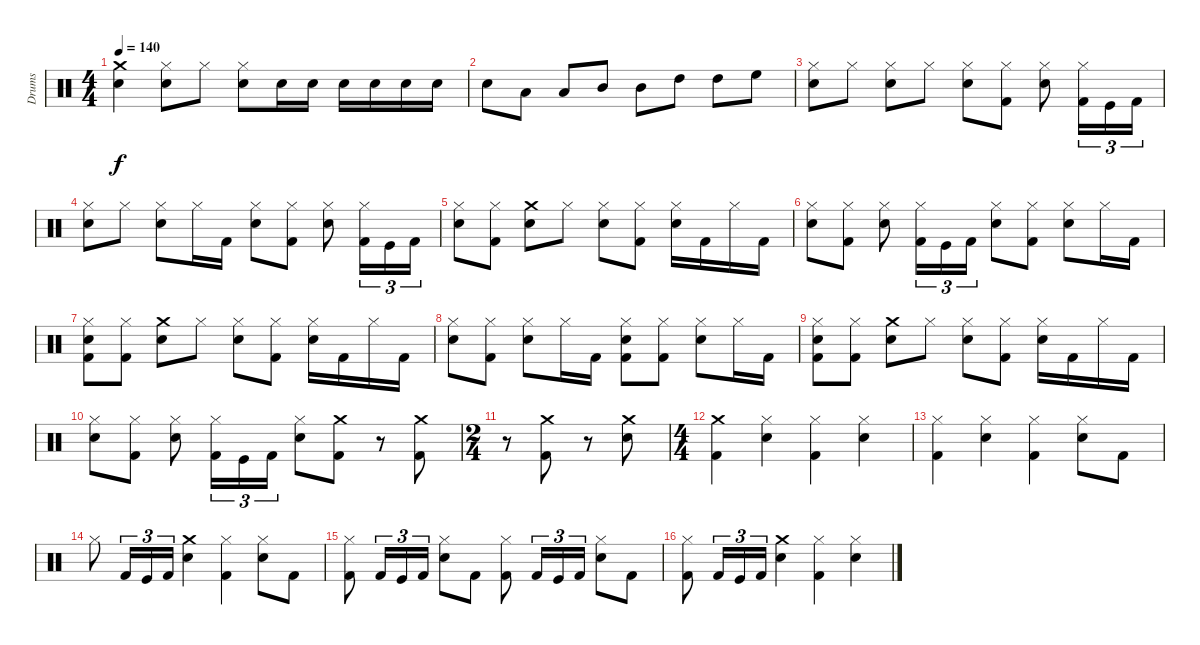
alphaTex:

\track ("Drums" "Drums") {instrument percussion}
\staff {score}
\articulation defaults
\ts (4 4)
\tempo 140
\clef neutral
\ks c
("Crash medium (hit)" "Snare (hit) 2").4{dy f} ("Hi-Hat (closed)" "Snare (hit) 2").8 "Hi-Hat (closed)".8 ("Snare (hit) 2" "Hi-Hat (closed)").8 "Snare (hit) 2".16 "Snare (hit) 2".16 "Snare (hit) 2".16 "Snare (hit) 2".16 "Snare (hit) 2".16 "Snare (hit) 2".16 |
"Snare (hit) 2".8 "Low Tom (hit)".8 "Low Tom (hit)".8 "Mid Tom (hit)".8 "Mid Tom (hit)".8 "High Tom (hit)".8 "High Tom (hit)".8 "High Floor Tom (hit)".8 |
("Hi-Hat (closed)" "Snare (hit) 2").8 "Hi-Hat (closed)".8 ("Snare (hit) 2" "Hi-Hat (closed)").8 "Hi-Hat (closed)".8 ("Snare (hit) 2" "Hi-Hat (closed)").8 ("Kick (hit) 2" "Hi-Hat (closed)").8 ("Snare (hit) 2" "Hi-Hat (closed)").8 ("Kick (hit) 2" "Hi-Hat (closed)").16{tu (3 2)} "Kick (hit)".16{tu (3 2)} "Kick (hit) 2".16{tu (3 2)} |
("Hi-Hat (closed)" "Snare (hit) 2").8 "Hi-Hat (closed)".8 ("Snare (hit) 2" "Hi-Hat (closed)").8 "Hi-Hat (closed)".16 "Kick (hit) 2".16 ("Snare (hit) 2" "Hi-Hat (closed)").8 ("Kick (hit) 2" "Hi-Hat (closed)").8 ("Snare (hit) 2" "Hi-Hat (closed)").8 ("Kick (hit) 2" "Hi-Hat (closed)").16{tu (3 2)} "Kick (hit)".16{tu (3 2)} "Kick (hit) 2".16{tu (3 2)} |
("Hi-Hat (closed)" "Snare (hit) 2").8 ("Kick (hit) 2" "Hi-Hat (closed)").8 ("Crash medium (hit)" "Snare (hit) 2").8 "Hi-Hat (closed)".8 ("Snare (hit) 2" "Hi-Hat (closed)").8 ("Kick (hit) 2" "Hi-Hat (closed)").8 ("Snare (hit) 2" "Hi-Hat (closed)").16 "Kick (hit) 2".16 "Hi-Hat (closed)".16 "Kick (hit) 2".16 |
("Snare (hit) 2" "Hi-Hat (closed)").8 ("Hi-Hat (closed)" "Kick (hit) 2").8 ("Snare (hit) 2" "Hi-Hat (closed)").8 ("Hi-Hat (closed)" "Kick (hit) 2").16{tu (3 2)} "Kick (hit)".16{tu (3 2)} "Kick (hit) 2".16{tu (3 2)} ("Snare (hit) 2" "Hi-Hat (closed)").8 ("Kick (hit) 2" "Hi-Hat (closed)").8 ("Hi-Hat (closed)" "Snare (hit) 2").8 "Hi-Hat (closed)".16 "Kick (hit) 2".16 |
("Kick (hit) 2" "Snare (hit) 2" "Hi-Hat (closed)").8 ("Kick (hit) 2" "Hi-Hat (closed)").8 ("Crash medium (hit)" "Snare (hit) 2").8 "Hi-Hat (closed)".8 ("Snare (hit) 2" "Hi-Hat (closed)").8 ("Kick (hit) 2" "Hi-Hat (closed)").8 ("Hi-Hat (closed)" "Snare (hit) 2").16 "Kick (hit) 2".16 "Hi-Hat (closed)".16 "Kick (hit) 2".16 |
("Hi-Hat (closed)" "Snare (hit) 2").8 ("Kick (hit) 2" "Hi-Hat (closed)").8 ("Snare (hit) 2" "Hi-Hat (closed)").8 "Hi-Hat (closed)".16 "Kick (hit) 2".16 ("Kick (hit) 2" "Snare (hit) 2" "Hi-Hat (closed)").8 ("Kick (hit) 2" "Hi-Hat (closed)").8 ("Snare (hit) 2" "Hi-Hat (closed)").8 "Hi-Hat (closed)".16 "Kick (hit) 2".16 |
("Kick (hit) 2" "Snare (hit) 2" "Hi-Hat (closed)").8 ("Kick (hit) 2" "Hi-Hat (closed)").8 ("Crash medium (hit)" "Snare (hit) 2").8 "Hi-Hat (closed)".8 ("Snare (hit) 2" "Hi-Hat (closed)").8 ("Kick (hit) 2" "Hi-Hat (closed)").8 ("Hi-Hat (closed)" "Snare (hit) 2").16 "Kick (hit) 2".16 "Hi-Hat (closed)".16 "Kick (hit) 2".16 |
("Snare (hit) 2" "Hi-Hat (closed)").8 ("Hi-Hat (closed)" "Kick (hit) 2").8 ("Snare (hit) 2" "Hi-Hat (closed)").8 ("Hi-Hat (closed)" "Kick (hit) 2").16{tu (3 2)} "Kick (hit)".16{tu (3 2)} "Kick (hit) 2".16{tu (3 2)} ("Hi-Hat (closed)" "Snare (hit) 2").8 ("Kick (hit) 2" "Crash medium (hit)").8 r.8 ("Crash medium (hit)" "Kick (hit) 2").8 |
\ts (2 4)
r.8 ("Kick (hit) 2" "Crash medium (hit)").8 r.8 ("Snare (hit) 2" "Crash medium (hit)").8 |
\ts (4 4)
("Kick (hit) 2" "Crash medium (hit)").4 ("Hi-Hat (closed)" "Snare (hit) 2").4 ("Hi-Hat (closed)" "Kick (hit) 2").4 ("Snare (hit) 2" "Hi-Hat (closed)").4 |
("Hi-Hat (closed)" "Kick (hit) 2").4 ("Hi-Hat (closed)" "Snare (hit) 2").4 ("Hi-Hat (closed)" "Kick (hit) 2").4 ("Hi-Hat (closed)" "Snare (hit) 2").8 "Kick (hit) 2".8 |
"Hi-Hat (closed)".8 "Kick (hit) 2".16{tu (3 2)} "Kick (hit)".16{tu (3 2)} "Kick (hit) 2".16{tu (3 2)} ("Snare (hit) 2" "Crash medium (hit)").4 ("Hi-Hat (closed)" "Kick (hit) 2").4 ("Snare (hit) 2" "Hi-Hat (closed)").8 "Kick (hit) 2".8 |
("Kick (hit) 2" "Hi-Hat (closed)").8 "Kick (hit) 2".16{tu (3 2)} "Kick (hit)".16{tu (3 2)} "Kick (hit) 2".16{tu (3 2)} ("Snare (hit) 2" "Hi-Hat (closed)").8 "Kick (hit) 2".8 ("Kick (hit) 2" "Hi-Hat (closed)").8 "Kick (hit) 2".16{tu (3 2)} "Kick (hit)".16{tu (3 2)} "Kick (hit) 2".16{tu (3 2)} ("Snare (hit) 2" "Hi-Hat (closed)").8 "Kick (hit) 2".8 |
("Hi-Hat (closed)" "Kick (hit) 2").8 "Kick (hit) 2".16{tu (3 2)} "Kick (hit)".16{tu (3 2)} "Kick (hit) 2".16{tu (3 2)} ("Snare (hit) 2" "Crash medium (hit)").4 ("Kick (hit) 2" "Hi-Hat (closed)").4 ("Hi-Hat (closed)" "Snare (hit) 2").4
